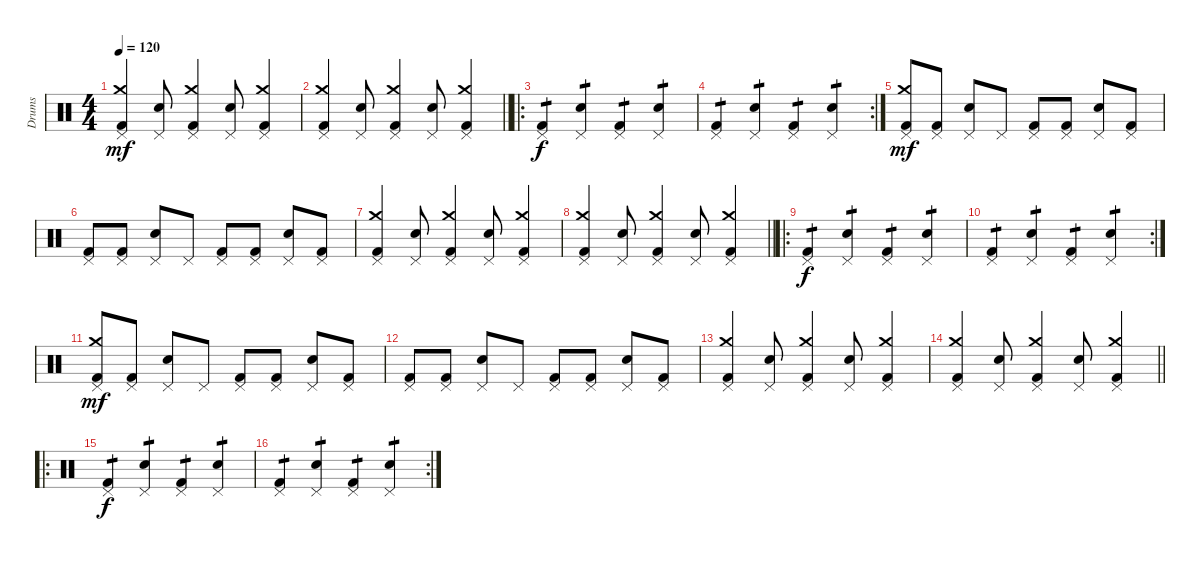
\track ("Drums" "Drums") {instrument percussion}
\staff {score}
\articulation defaults
\ts (4 4)
\tempo 120
\clef neutral
\ks c
("Kick (hit) 2" "Crash medium (hit)" "Pedal Hi-Hat (hit)").4{dy mf} ("Snare (hit) 2" "Pedal Hi-Hat (hit)").8 ("Kick (hit) 2" "Crash medium (hit)" "Pedal Hi-Hat (hit)").4 ("Snare (hit) 2" "Pedal Hi-Hat (hit)").8 ("Kick (hit) 2" "Crash medium (hit)" "Pedal Hi-Hat (hit)").4 |
\barLineRight lightlight
("Kick (hit) 2" "Crash medium (hit)" "Pedal Hi-Hat (hit)").4 ("Snare (hit) 2" "Pedal Hi-Hat (hit)").8 ("Kick (hit) 2" "Crash medium (hit)" "Pedal Hi-Hat (hit)").4 ("Snare (hit) 2" "Pedal Hi-Hat (hit)").8 ("Kick (hit) 2" "Crash medium (hit)" "Pedal Hi-Hat (hit)").4 |
\ro
("Kick (hit) 2" "Pedal Hi-Hat (hit)").4{tp 1 dy f} ("Snare (hit) 2" "Pedal Hi-Hat (hit)").4{tp 1} ("Kick (hit) 2" "Pedal Hi-Hat (hit)").4{tp 1} ("Snare (hit) 2" "Pedal Hi-Hat (hit)").4{tp 1} |
\rc 2
("Kick (hit) 2" "Pedal Hi-Hat (hit)").4{tp 1} ("Snare (hit) 2" "Pedal Hi-Hat (hit)").4{tp 1} ("Kick (hit) 2" "Pedal Hi-Hat (hit)").4{tp 1} ("Snare (hit) 2" "Pedal Hi-Hat (hit)").4{tp 1} |
("Kick (hit) 2" "Crash medium (hit)" "Pedal Hi-Hat (hit)").8{dy mf} ("Kick (hit) 2" "Pedal Hi-Hat (hit)").8 ("Snare (hit) 2" "Pedal Hi-Hat (hit)").8 "Pedal Hi-Hat (hit)".8 ("Kick (hit) 2" "Pedal Hi-Hat (hit)").8 ("Kick (hit) 2" "Pedal Hi-Hat (hit)").8 ("Snare (hit) 2" "Pedal Hi-Hat (hit)").8 ("Kick (hit) 2" "Pedal Hi-Hat (hit)").8 |
("Kick (hit) 2" "Pedal Hi-Hat (hit)").8 ("Kick (hit) 2" "Pedal Hi-Hat (hit)").8 ("Snare (hit) 2" "Pedal Hi-Hat (hit)").8 "Pedal Hi-Hat (hit)".8 ("Kick (hit) 2" "Pedal Hi-Hat (hit)").8 ("Kick (hit) 2" "Pedal Hi-Hat (hit)").8 ("Snare (hit) 2" "Pedal Hi-Hat (hit)").8 ("Kick (hit) 2" "Pedal Hi-Hat (hit)").8 |
("Kick (hit) 2" "Crash medium (hit)" "Pedal Hi-Hat (hit)").4 ("Snare (hit) 2" "Pedal Hi-Hat (hit)").8 ("Kick (hit) 2" "Crash medium (hit)" "Pedal Hi-Hat (hit)").4 ("Snare (hit) 2" "Pedal Hi-Hat (hit)").8 ("Kick (hit) 2" "Crash medium (hit)" "Pedal Hi-Hat (hit)").4 |
\barLineRight lightlight
("Kick (hit) 2" "Crash medium (hit)" "Pedal Hi-Hat (hit)").4 ("Snare (hit) 2" "Pedal Hi-Hat (hit)").8 ("Kick (hit) 2" "Crash medium (hit)" "Pedal Hi-Hat (hit)").4 ("Snare (hit) 2" "Pedal Hi-Hat (hit)").8 ("Kick (hit) 2" "Crash medium (hit)" "Pedal Hi-Hat (hit)").4 |
\ro
("Kick (hit) 2" "Pedal Hi-Hat (hit)").4{tp 1 dy f} ("Snare (hit) 2" "Pedal Hi-Hat (hit)").4{tp 1} ("Kick (hit) 2" "Pedal Hi-Hat (hit)").4{tp 1} ("Snare (hit) 2" "Pedal Hi-Hat (hit)").4{tp 1} |
\rc 2
("Kick (hit) 2" "Pedal Hi-Hat (hit)").4{tp 1} ("Snare (hit) 2" "Pedal Hi-Hat (hit)").4{tp 1} ("Kick (hit) 2" "Pedal Hi-Hat (hit)").4{tp 1} ("Snare (hit) 2" "Pedal Hi-Hat (hit)").4{tp 1} |
("Kick (hit) 2" "Crash medium (hit)" "Pedal Hi-Hat (hit)").8{dy mf} ("Kick (hit) 2" "Pedal Hi-Hat (hit)").8 ("Snare (hit) 2" "Pedal Hi-Hat (hit)").8 "Pedal Hi-Hat (hit)".8 ("Kick (hit) 2" "Pedal Hi-Hat (hit)").8 ("Kick (hit) 2" "Pedal Hi-Hat (hit)").8 ("Snare (hit) 2" "Pedal Hi-Hat (hit)").8 ("Kick (hit) 2" "Pedal Hi-Hat (hit)").8 |
("Kick (hit) 2" "Pedal Hi-Hat (hit)").8 ("Kick (hit) 2" "Pedal Hi-Hat (hit)").8 ("Snare (hit) 2" "Pedal Hi-Hat (hit)").8 "Pedal Hi-Hat (hit)".8 ("Kick (hit) 2" "Pedal Hi-Hat (hit)").8 ("Kick (hit) 2" "Pedal Hi-Hat (hit)").8 ("Snare (hit) 2" "Pedal Hi-Hat (hit)").8 ("Kick (hit) 2" "Pedal Hi-Hat (hit)").8 |
("Kick (hit) 2" "Crash medium (hit)" "Pedal Hi-Hat (hit)").4 ("Snare (hit) 2" "Pedal Hi-Hat (hit)").8 ("Kick (hit) 2" "Crash medium (hit)" "Pedal Hi-Hat (hit)").4 ("Snare (hit) 2" "Pedal Hi-Hat (hit)").8 ("Kick (hit) 2" "Crash medium (hit)" "Pedal Hi-Hat (hit)").4 |
\barLineRight lightlight
("Kick (hit) 2" "Crash medium (hit)" "Pedal Hi-Hat (hit)").4 ("Snare (hit) 2" "Pedal Hi-Hat (hit)").8 ("Kick (hit) 2" "Crash medium (hit)" "Pedal Hi-Hat (hit)").4 ("Snare (hit) 2" "Pedal Hi-Hat (hit)").8 ("Kick (hit) 2" "Crash medium (hit)" "Pedal Hi-Hat (hit)").4 |
\ro
("Kick (hit) 2" "Pedal Hi-Hat (hit)").4{tp 1 dy f} ("Snare (hit) 2" "Pedal Hi-Hat (hit)").4{tp 1} ("Kick (hit) 2" "Pedal Hi-Hat (hit)").4{tp 1} ("Snare (hit) 2" "Pedal Hi-Hat (hit)").4{tp 1} |
\rc 2
("Kick (hit) 2" "Pedal Hi-Hat (hit)").4{tp 1} ("Snare (hit) 2" "Pedal Hi-Hat (hit)").4{tp 1} ("Kick (hit) 2" "Pedal Hi-Hat (hit)").4{tp 1} ("Snare (hit) 2" "Pedal Hi-Hat (hit)").4{tp 1}
